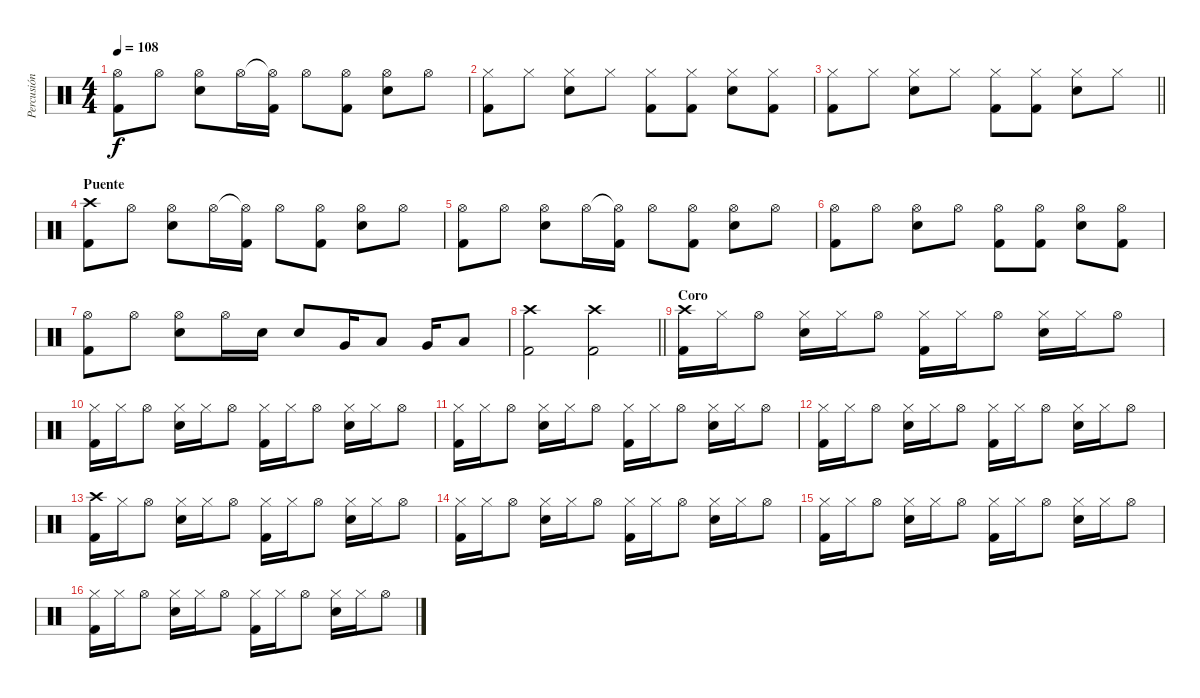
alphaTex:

\track ("Percusión" "Percusión") {instrument percussion}
\staff {score}
\articulation defaults
\ts (4 4)
\tempo 108
\clef neutral
\ks c
("Hi-Hat (open)" "Kick (hit) 2").8{dy f} "Hi-Hat (open)".8 ("Hi-Hat (open)" "Electric Snare (hit)").8 "Hi-Hat (open)".16 ("Hi-Hat (open)"{t} "Kick (hit) 2").16 "Hi-Hat (open)".8 ("Hi-Hat (open)" "Kick (hit) 2").8 ("Hi-Hat (open)" "Electric Snare (hit)").8 "Hi-Hat (open)".8 |
("Hi-Hat (closed)" "Kick (hit) 2").8 "Hi-Hat (closed)".8 ("Hi-Hat (closed)" "Electric Snare (hit)").8 "Hi-Hat (closed)".8 ("Hi-Hat (closed)" "Kick (hit) 2").8 ("Hi-Hat (closed)" "Kick (hit) 2").8 ("Hi-Hat (closed)" "Electric Snare (hit)").8 ("Hi-Hat (closed)" "Kick (hit) 2").8 |
\barLineRight lightlight
("Hi-Hat (closed)" "Kick (hit) 2").8 "Hi-Hat (closed)".8 ("Hi-Hat (closed)" "Electric Snare (hit)").8 "Hi-Hat (closed)".8 ("Hi-Hat (closed)" "Kick (hit) 2").8 ("Hi-Hat (closed)" "Kick (hit) 2").8 ("Hi-Hat (closed)" "Electric Snare (hit)").8 "Hi-Hat (closed)".8 |
\section ("" "Puente")
("Crash high (hit)" "Kick (hit) 2").8 "Hi-Hat (open)".8 ("Hi-Hat (open)" "Electric Snare (hit)").8 "Hi-Hat (open)".16 ("Hi-Hat (open)"{t} "Kick (hit) 2").16 "Hi-Hat (open)".8 ("Hi-Hat (open)" "Kick (hit) 2").8 ("Hi-Hat (open)" "Electric Snare (hit)").8 "Hi-Hat (open)".8 |
("Hi-Hat (open)" "Kick (hit) 2").8 "Hi-Hat (open)".8 ("Hi-Hat (open)" "Electric Snare (hit)").8 "Hi-Hat (open)".16 ("Hi-Hat (open)"{t} "Kick (hit) 2").16 "Hi-Hat (open)".8 ("Hi-Hat (open)" "Kick (hit) 2").8 ("Hi-Hat (open)" "Electric Snare (hit)").8 "Hi-Hat (open)".8 |
("Hi-Hat (open)" "Kick (hit) 2").8 "Hi-Hat (open)".8 ("Hi-Hat (open)" "Electric Snare (hit)").8 "Hi-Hat (open)".8 ("Hi-Hat (open)" "Kick (hit) 2").8 ("Hi-Hat (open)" "Kick (hit) 2").8 ("Hi-Hat (open)" "Electric Snare (hit)").8 ("Hi-Hat (open)" "Kick (hit) 2").8 |
("Hi-Hat (open)" "Kick (hit) 2").8 "Hi-Hat (open)".8 ("Hi-Hat (open)" "Electric Snare (hit)").8 "Hi-Hat (open)".16 "Electric Snare (hit)".16 "Electric Snare (hit)".8 "Very Low Tom (hit)".16 "Low Tom (hit)".8 "Very Low Tom (hit)".16 "Low Tom (hit)".8 |
\barLineRight lightlight
("Crash high (hit)" "Kick (hit) 2").2 ("Crash high (hit)" "Kick (hit) 2").2 |
\section ("" "Coro")
("Crash high (hit)" "Kick (hit) 2").16 "Hi-Hat (closed)".16 "Hi-Hat (open)".8 ("Hi-Hat (closed)" "Electric Snare (hit)").16 "Hi-Hat (closed)".16 "Hi-Hat (open)".8 ("Hi-Hat (closed)" "Kick (hit) 2").16 "Hi-Hat (closed)".16 "Hi-Hat (open)".8 ("Hi-Hat (closed)" "Electric Snare (hit)").16 "Hi-Hat (closed)".16 "Hi-Hat (open)".8 |
("Hi-Hat (closed)" "Kick (hit) 2").16 "Hi-Hat (closed)".16 "Hi-Hat (open)".8 ("Hi-Hat (closed)" "Electric Snare (hit)").16 "Hi-Hat (closed)".16 "Hi-Hat (open)".8 ("Hi-Hat (closed)" "Kick (hit) 2").16 "Hi-Hat (closed)".16 "Hi-Hat (open)".8 ("Hi-Hat (closed)" "Electric Snare (hit)").16 "Hi-Hat (closed)".16 "Hi-Hat (open)".8 |
("Hi-Hat (closed)" "Kick (hit) 2").16 "Hi-Hat (closed)".16 "Hi-Hat (open)".8 ("Hi-Hat (closed)" "Electric Snare (hit)").16 "Hi-Hat (closed)".16 "Hi-Hat (open)".8 ("Hi-Hat (closed)" "Kick (hit) 2").16 "Hi-Hat (closed)".16 "Hi-Hat (open)".8 ("Hi-Hat (closed)" "Electric Snare (hit)").16 "Hi-Hat (closed)".16 "Hi-Hat (open)".8 |
("Hi-Hat (closed)" "Kick (hit) 2").16 "Hi-Hat (closed)".16 "Hi-Hat (open)".8 ("Hi-Hat (closed)" "Electric Snare (hit)").16 "Hi-Hat (closed)".16 "Hi-Hat (open)".8 ("Hi-Hat (closed)" "Kick (hit) 2").16 "Hi-Hat (closed)".16 "Hi-Hat (open)".8 ("Hi-Hat (closed)" "Electric Snare (hit)").16 "Hi-Hat (closed)".16 "Hi-Hat (open)".8 |
("Crash high (hit)" "Kick (hit) 2").16 "Hi-Hat (closed)".16 "Hi-Hat (open)".8 ("Hi-Hat (closed)" "Electric Snare (hit)").16 "Hi-Hat (closed)".16 "Hi-Hat (open)".8 ("Hi-Hat (closed)" "Kick (hit) 2").16 "Hi-Hat (closed)".16 "Hi-Hat (open)".8 ("Hi-Hat (closed)" "Electric Snare (hit)").16 "Hi-Hat (closed)".16 "Hi-Hat (open)".8 |
("Hi-Hat (closed)" "Kick (hit) 2").16 "Hi-Hat (closed)".16 "Hi-Hat (open)".8 ("Hi-Hat (closed)" "Electric Snare (hit)").16 "Hi-Hat (closed)".16 "Hi-Hat (open)".8 ("Hi-Hat (closed)" "Kick (hit) 2").16 "Hi-Hat (closed)".16 "Hi-Hat (open)".8 ("Hi-Hat (closed)" "Electric Snare (hit)").16 "Hi-Hat (closed)".16 "Hi-Hat (open)".8 |
("Hi-Hat (closed)" "Kick (hit) 2").16 "Hi-Hat (closed)".16 "Hi-Hat (open)".8 ("Hi-Hat (closed)" "Electric Snare (hit)").16 "Hi-Hat (closed)".16 "Hi-Hat (open)".8 ("Hi-Hat (closed)" "Kick (hit) 2").16 "Hi-Hat (closed)".16 "Hi-Hat (open)".8 ("Hi-Hat (closed)" "Electric Snare (hit)").16 "Hi-Hat (closed)".16 "Hi-Hat (open)".8 |
("Hi-Hat (closed)" "Kick (hit) 2").16 "Hi-Hat (closed)".16 "Hi-Hat (open)".8 ("Hi-Hat (closed)" "Electric Snare (hit)").16 "Hi-Hat (closed)".16 "Hi-Hat (open)".8 ("Hi-Hat (closed)" "Kick (hit) 2").16 "Hi-Hat (closed)".16 "Hi-Hat (open)".8 ("Hi-Hat (closed)" "Electric Snare (hit)").16 "Hi-Hat (closed)".16 "Hi-Hat (open)".8
